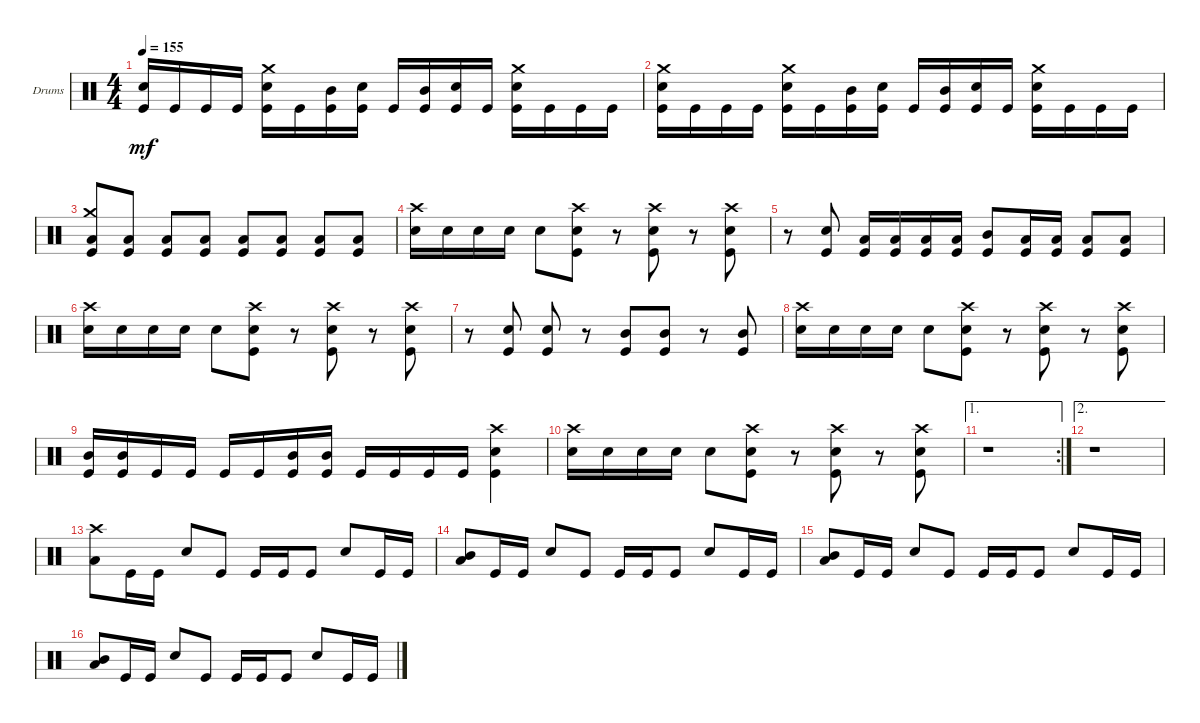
\defaultSystemsLayout 4
\bracketExtendMode groupsimilarinstruments
\firstSystemTrackNameOrientation horizontal
\otherSystemsTrackNameOrientation horizontal
\track ("Drumkit" "Drums") {instrument percussion}
\staff {score}
\articulation defaults
\ts (4 4)
\tempo 155
\clef neutral
\ks c
("Kick (hit)" "Snare (hit) 2").16{dy mf} "Kick (hit)".16 "Kick (hit)".16 "Kick (hit)".16 ("Kick (hit)" "Snare (hit) 2" "Crash medium (hit)").16 "Kick (hit)".16 ("Kick (hit)" "Mid Tom (hit)").16 ("Kick (hit)" "Snare (hit) 2").16 "Kick (hit)".16 ("Kick (hit)" "Mid Tom (hit)").16 ("Kick (hit)" "Snare (hit) 2").16 "Kick (hit)".16 ("Kick (hit)" "Snare (hit) 2" "Crash medium (hit)").16 "Kick (hit)".16 "Kick (hit)".16 "Kick (hit)".16 |
("Kick (hit)" "Snare (hit) 2" "Crash medium (hit)").16 "Kick (hit)".16 "Kick (hit)".16 "Kick (hit)".16 ("Kick (hit)" "Snare (hit) 2" "Crash medium (hit)").16 "Kick (hit)".16 ("Kick (hit)" "Mid Tom (hit)").16 ("Kick (hit)" "Snare (hit) 2").16 "Kick (hit)".16 ("Kick (hit)" "Mid Tom (hit)").16 ("Kick (hit)" "Snare (hit) 2").16 "Kick (hit)".16 ("Kick (hit)" "Snare (hit) 2" "Crash medium (hit)").16 "Kick (hit)".16 "Kick (hit)".16 "Kick (hit)".16 |
("Kick (hit)" "Low Tom (hit)" "Crash medium (hit)").8 ("Kick (hit)" "Low Tom (hit)").8 ("Kick (hit)" "Low Tom (hit)").8 ("Kick (hit)" "Low Tom (hit)").8 ("Kick (hit)" "Low Tom (hit)").8 ("Kick (hit)" "Low Tom (hit)").8 ("Kick (hit)" "Low Tom (hit)").8 ("Kick (hit)" "Low Tom (hit)").8 |
("Snare (hit) 2" "Crash high (hit)").16 "Snare (hit) 2".16 "Snare (hit) 2".16 "Snare (hit) 2".16 "Snare (hit) 2".8 ("Kick (hit)" "Snare (hit) 2" "Crash high (hit)").8 r.8 ("Kick (hit)" "Snare (hit) 2" "Crash high (hit)").8 r.8 ("Kick (hit)" "Snare (hit) 2" "Crash high (hit)").8 |
r.8 ("Kick (hit)" "Snare (hit) 2").8 ("Kick (hit)" "Low Tom (hit)").16 ("Kick (hit)" "Low Tom (hit)").16 ("Kick (hit)" "Low Tom (hit)").16 ("Kick (hit)" "Low Tom (hit)").16 ("Kick (hit)" "Mid Tom (hit)").8 ("Kick (hit)" "Low Tom (hit)").16 ("Kick (hit)" "Low Tom (hit)").16 ("Kick (hit)" "Low Tom (hit)").8 ("Kick (hit)" "Low Tom (hit)").8 |
("Snare (hit) 2" "Crash high (hit)").16 "Snare (hit) 2".16 "Snare (hit) 2".16 "Snare (hit) 2".16 "Snare (hit) 2".8 ("Kick (hit)" "Snare (hit) 2" "Crash high (hit)").8 r.8 ("Kick (hit)" "Snare (hit) 2" "Crash high (hit)").8 r.8 ("Kick (hit)" "Snare (hit) 2" "Crash high (hit)").8 |
r.8 ("Kick (hit)" "Snare (hit) 2").8 ("Kick (hit)" "Snare (hit) 2").8 r.8 ("Kick (hit)" "Mid Tom (hit)").8 ("Kick (hit)" "Mid Tom (hit)").8 r.8 ("Kick (hit)" "Mid Tom (hit)").8 |
("Snare (hit) 2" "Crash high (hit)").16 "Snare (hit) 2".16 "Snare (hit) 2".16 "Snare (hit) 2".16 "Snare (hit) 2".8 ("Kick (hit)" "Snare (hit) 2" "Crash high (hit)").8 r.8 ("Kick (hit)" "Snare (hit) 2" "Crash high (hit)").8 r.8 ("Kick (hit)" "Snare (hit) 2" "Crash high (hit)").8 |
("Kick (hit)" "Mid Tom (hit)").16 ("Kick (hit)" "Mid Tom (hit)").16 "Kick (hit)".16 "Kick (hit)".16 "Kick (hit)".16 "Kick (hit)".16 ("Kick (hit)" "Mid Tom (hit)").16 ("Kick (hit)" "Mid Tom (hit)").16 "Kick (hit)".16 "Kick (hit)".16 "Kick (hit)".16 "Kick (hit)".16 ("Kick (hit)" "Snare (hit) 2" "Crash high (hit)").4 |
("Snare (hit) 2" "Crash high (hit)").16 "Snare (hit) 2".16 "Snare (hit) 2".16 "Snare (hit) 2".16 "Snare (hit) 2".8 ("Kick (hit)" "Snare (hit) 2" "Crash high (hit)").8 r.8 ("Kick (hit)" "Snare (hit) 2" "Crash high (hit)").8 r.8 ("Kick (hit)" "Snare (hit) 2" "Crash high (hit)").8 |
\ae 1
\rc 2
r.1 |
\ae 2
r.1 |
("Low Tom (hit)" "Crash high (hit)").8 "Kick (hit)".16 "Kick (hit)".16 "Snare (hit) 2".8 "Kick (hit)".8 "Kick (hit)".16 "Kick (hit)".16 "Kick (hit)".8 "Snare (hit) 2".8 "Kick (hit)".16 "Kick (hit)".16 |
("Low Tom (hit)" "Mid Tom (hit)").8 "Kick (hit)".16 "Kick (hit)".16 "Snare (hit) 2".8 "Kick (hit)".8 "Kick (hit)".16 "Kick (hit)".16 "Kick (hit)".8 "Snare (hit) 2".8 "Kick (hit)".16 "Kick (hit)".16 |
("Low Tom (hit)" "Mid Tom (hit)").8 "Kick (hit)".16 "Kick (hit)".16 "Snare (hit) 2".8 "Kick (hit)".8 "Kick (hit)".16 "Kick (hit)".16 "Kick (hit)".8 "Snare (hit) 2".8 "Kick (hit)".16 "Kick (hit)".16 |
("Low Tom (hit)" "Mid Tom (hit)").8 "Kick (hit)".16 "Kick (hit)".16 "Snare (hit) 2".8 "Kick (hit)".8 "Kick (hit)".16 "Kick (hit)".16 "Kick (hit)".8 "Snare (hit) 2".8 "Kick (hit)".16 "Kick (hit)".16
